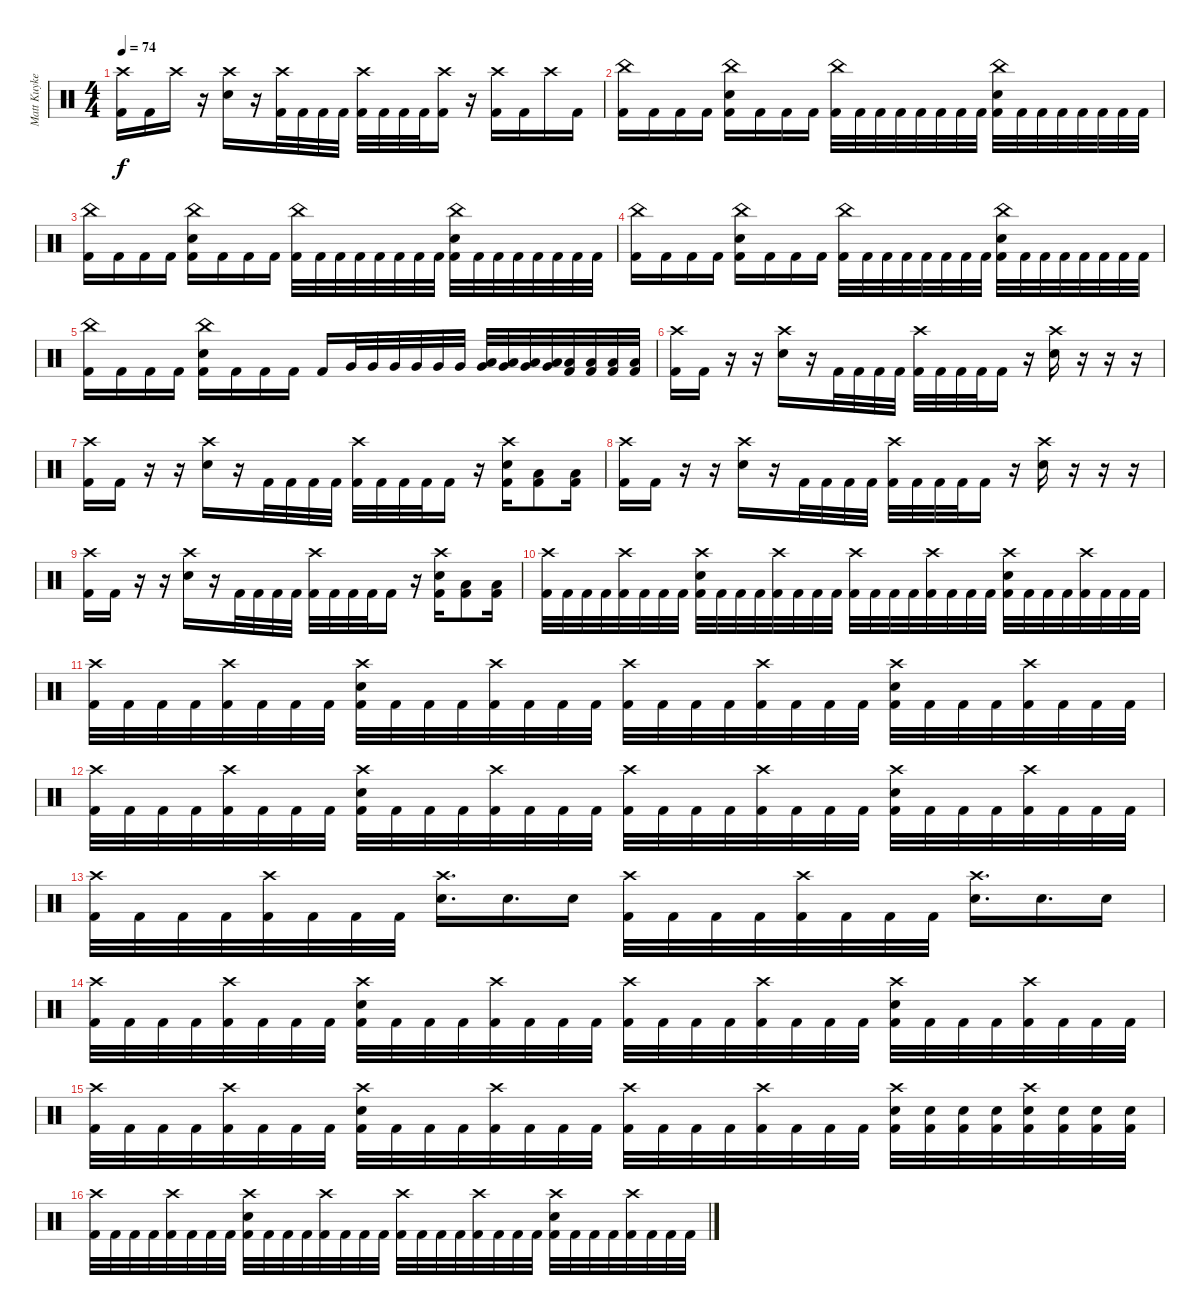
\track ("Matt Kuykendall (Drums)" "Matt Kuyke") {instrument percussion}
\staff {score}
\articulation defaults
\ts (4 4)
\tempo 74
\clef neutral
\ks c
("Crash high (hit)" "Kick (hit) 2").16{dy f} "Kick (hit) 2".16 "Crash high (hit)".16 r.16 ("Crash high (hit)" "Snare (hit) 2").16 r.16 ("Crash high (hit)" "Kick (hit) 2").32 "Kick (hit) 2".32 "Kick (hit) 2".32 "Kick (hit) 2".32 ("Crash high (hit)" "Kick (hit) 2").32 "Kick (hit) 2".32 "Kick (hit) 2".32 "Kick (hit) 2".32 ("Crash high (hit)" "Kick (hit) 2").16 r.16 ("Crash high (hit)" "Kick (hit) 2").16 "Kick (hit) 2".16 "Crash high (hit)".16 "Kick (hit) 2".16 |
("China (hit)" "Kick (hit) 2").16 "Kick (hit) 2".16 "Kick (hit) 2".16 "Kick (hit) 2".16 ("China (hit)" "Snare (hit) 2" "Kick (hit) 2").16 "Kick (hit) 2".16 "Kick (hit) 2".16 "Kick (hit) 2".16 ("China (hit)" "Kick (hit) 2").32 "Kick (hit) 2".32 "Kick (hit) 2".32 "Kick (hit) 2".32 "Kick (hit) 2".32 "Kick (hit) 2".32 "Kick (hit) 2".32 "Kick (hit) 2".32 ("China (hit)" "Snare (hit) 2" "Kick (hit) 2").32 "Kick (hit) 2".32 "Kick (hit) 2".32 "Kick (hit) 2".32 "Kick (hit) 2".32 "Kick (hit) 2".32 "Kick (hit) 2".32 "Kick (hit) 2".32 |
("China (hit)" "Kick (hit) 2").16 "Kick (hit) 2".16 "Kick (hit) 2".16 "Kick (hit) 2".16 ("China (hit)" "Snare (hit) 2" "Kick (hit) 2").16 "Kick (hit) 2".16 "Kick (hit) 2".16 "Kick (hit) 2".16 ("China (hit)" "Kick (hit) 2").32 "Kick (hit) 2".32 "Kick (hit) 2".32 "Kick (hit) 2".32 "Kick (hit) 2".32 "Kick (hit) 2".32 "Kick (hit) 2".32 "Kick (hit) 2".32 ("China (hit)" "Snare (hit) 2" "Kick (hit) 2").32 "Kick (hit) 2".32 "Kick (hit) 2".32 "Kick (hit) 2".32 "Kick (hit) 2".32 "Kick (hit) 2".32 "Kick (hit) 2".32 "Kick (hit) 2".32 |
("China (hit)" "Kick (hit) 2").16 "Kick (hit) 2".16 "Kick (hit) 2".16 "Kick (hit) 2".16 ("China (hit)" "Snare (hit) 2" "Kick (hit) 2").16 "Kick (hit) 2".16 "Kick (hit) 2".16 "Kick (hit) 2".16 ("China (hit)" "Kick (hit) 2").32 "Kick (hit) 2".32 "Kick (hit) 2".32 "Kick (hit) 2".32 "Kick (hit) 2".32 "Kick (hit) 2".32 "Kick (hit) 2".32 "Kick (hit) 2".32 ("China (hit)" "Snare (hit) 2" "Kick (hit) 2").32 "Kick (hit) 2".32 "Kick (hit) 2".32 "Kick (hit) 2".32 "Kick (hit) 2".32 "Kick (hit) 2".32 "Kick (hit) 2".32 "Kick (hit) 2".32 |
("China (hit)" "Kick (hit) 2").16 "Kick (hit) 2".16 "Kick (hit) 2".16 "Kick (hit) 2".16 ("China (hit)" "Snare (hit) 2" "Kick (hit) 2").16 "Kick (hit) 2".16 "Kick (hit) 2".16 "Kick (hit) 2".16 "Kick (hit) 2".16 "Very Low Tom (hit)".32 "Very Low Tom (hit)".32 "Very Low Tom (hit)".32 "Very Low Tom (hit)".32 "Very Low Tom (hit)".32 "Very Low Tom (hit)".32 ("Very Low Tom (hit)" "Low Floor Tom (hit)").32 ("Very Low Tom (hit)" "Low Floor Tom (hit)").32 ("Very Low Tom (hit)" "Low Floor Tom (hit)").32 ("Very Low Tom (hit)" "Low Floor Tom (hit)").32 ("Low Floor Tom (hit)" "Kick (hit) 2").32 ("Low Floor Tom (hit)" "Kick (hit) 2").32 ("Low Floor Tom (hit)" "Kick (hit) 2").32 ("Low Floor Tom (hit)" "Kick (hit) 2").32 |
("Crash high (hit)" "Kick (hit) 2").16 "Kick (hit) 2".16 r.16 r.16 ("Crash high (hit)" "Snare (hit) 2").16 r.16 "Kick (hit) 2".32 "Kick (hit) 2".32 "Kick (hit) 2".32 "Kick (hit) 2".32 ("Crash high (hit)" "Kick (hit) 2").32 "Kick (hit) 2".32 "Kick (hit) 2".32 "Kick (hit) 2".32 "Kick (hit) 2".16 r.16 ("Crash high (hit)" "Snare (hit) 2").16 r.16 r.16 r.16 |
("Crash high (hit)" "Kick (hit) 2").16 "Kick (hit) 2".16 r.16 r.16 ("Crash high (hit)" "Snare (hit) 2").16 r.16 "Kick (hit) 2".32 "Kick (hit) 2".32 "Kick (hit) 2".32 "Kick (hit) 2".32 ("Crash high (hit)" "Kick (hit) 2").32 "Kick (hit) 2".32 "Kick (hit) 2".32 "Kick (hit) 2".32 "Kick (hit) 2".16 r.16 ("Crash high (hit)" "Snare (hit) 2" "Kick (hit) 2").16 ("Low Floor Tom (hit)" "Kick (hit) 2").8 ("Low Floor Tom (hit)" "Kick (hit) 2").16 |
("Crash high (hit)" "Kick (hit) 2").16 "Kick (hit) 2".16 r.16 r.16 ("Crash high (hit)" "Snare (hit) 2").16 r.16 "Kick (hit) 2".32 "Kick (hit) 2".32 "Kick (hit) 2".32 "Kick (hit) 2".32 ("Crash high (hit)" "Kick (hit) 2").32 "Kick (hit) 2".32 "Kick (hit) 2".32 "Kick (hit) 2".32 "Kick (hit) 2".16 r.16 ("Crash high (hit)" "Snare (hit) 2").16 r.16 r.16 r.16 |
("Crash high (hit)" "Kick (hit) 2").16 "Kick (hit) 2".16 r.16 r.16 ("Crash high (hit)" "Snare (hit) 2").16 r.16 "Kick (hit) 2".32 "Kick (hit) 2".32 "Kick (hit) 2".32 "Kick (hit) 2".32 ("Crash high (hit)" "Kick (hit) 2").32 "Kick (hit) 2".32 "Kick (hit) 2".32 "Kick (hit) 2".32 "Kick (hit) 2".16 r.16 ("Crash high (hit)" "Snare (hit) 2" "Kick (hit) 2").16 ("Low Floor Tom (hit)" "Kick (hit) 2").8 ("Low Floor Tom (hit)" "Kick (hit) 2").16 |
("Crash high (hit)" "Kick (hit) 2").32 "Kick (hit) 2".32 "Kick (hit) 2".32 "Kick (hit) 2".32 ("Crash high (hit)" "Kick (hit) 2").32 "Kick (hit) 2".32 "Kick (hit) 2".32 "Kick (hit) 2".32 ("Crash high (hit)" "Snare (hit) 2" "Kick (hit) 2").32 "Kick (hit) 2".32 "Kick (hit) 2".32 "Kick (hit) 2".32 ("Crash high (hit)" "Kick (hit) 2").32 "Kick (hit) 2".32 "Kick (hit) 2".32 "Kick (hit) 2".32 ("Crash high (hit)" "Kick (hit) 2").32 "Kick (hit) 2".32 "Kick (hit) 2".32 "Kick (hit) 2".32 ("Crash high (hit)" "Kick (hit) 2").32 "Kick (hit) 2".32 "Kick (hit) 2".32 "Kick (hit) 2".32 ("Crash high (hit)" "Snare (hit) 2" "Kick (hit) 2").32 "Kick (hit) 2".32 "Kick (hit) 2".32 "Kick (hit) 2".32 ("Crash high (hit)" "Kick (hit) 2").32 "Kick (hit) 2".32 "Kick (hit) 2".32 "Kick (hit) 2".32 |
("Crash high (hit)" "Kick (hit) 2").32 "Kick (hit) 2".32 "Kick (hit) 2".32 "Kick (hit) 2".32 ("Crash high (hit)" "Kick (hit) 2").32 "Kick (hit) 2".32 "Kick (hit) 2".32 "Kick (hit) 2".32 ("Crash high (hit)" "Snare (hit) 2" "Kick (hit) 2").32 "Kick (hit) 2".32 "Kick (hit) 2".32 "Kick (hit) 2".32 ("Crash high (hit)" "Kick (hit) 2").32 "Kick (hit) 2".32 "Kick (hit) 2".32 "Kick (hit) 2".32 ("Crash high (hit)" "Kick (hit) 2").32 "Kick (hit) 2".32 "Kick (hit) 2".32 "Kick (hit) 2".32 ("Crash high (hit)" "Kick (hit) 2").32 "Kick (hit) 2".32 "Kick (hit) 2".32 "Kick (hit) 2".32 ("Crash high (hit)" "Snare (hit) 2" "Kick (hit) 2").32 "Kick (hit) 2".32 "Kick (hit) 2".32 "Kick (hit) 2".32 ("Crash high (hit)" "Kick (hit) 2").32 "Kick (hit) 2".32 "Kick (hit) 2".32 "Kick (hit) 2".32 |
("Crash high (hit)" "Kick (hit) 2").32 "Kick (hit) 2".32 "Kick (hit) 2".32 "Kick (hit) 2".32 ("Crash high (hit)" "Kick (hit) 2").32 "Kick (hit) 2".32 "Kick (hit) 2".32 "Kick (hit) 2".32 ("Crash high (hit)" "Snare (hit) 2" "Kick (hit) 2").32 "Kick (hit) 2".32 "Kick (hit) 2".32 "Kick (hit) 2".32 ("Crash high (hit)" "Kick (hit) 2").32 "Kick (hit) 2".32 "Kick (hit) 2".32 "Kick (hit) 2".32 ("Crash high (hit)" "Kick (hit) 2").32 "Kick (hit) 2".32 "Kick (hit) 2".32 "Kick (hit) 2".32 ("Crash high (hit)" "Kick (hit) 2").32 "Kick (hit) 2".32 "Kick (hit) 2".32 "Kick (hit) 2".32 ("Crash high (hit)" "Snare (hit) 2" "Kick (hit) 2").32 "Kick (hit) 2".32 "Kick (hit) 2".32 "Kick (hit) 2".32 ("Crash high (hit)" "Kick (hit) 2").32 "Kick (hit) 2".32 "Kick (hit) 2".32 "Kick (hit) 2".32 |
("Crash high (hit)" "Kick (hit) 2").32 "Kick (hit) 2".32 "Kick (hit) 2".32 "Kick (hit) 2".32 ("Crash high (hit)" "Kick (hit) 2").32 "Kick (hit) 2".32 "Kick (hit) 2".32 "Kick (hit) 2".32 ("Crash high (hit)" "Snare (hit) 2").16{d} "Snare (hit) 2".16{d} "Snare (hit) 2".16 ("Crash high (hit)" "Kick (hit) 2").32 "Kick (hit) 2".32 "Kick (hit) 2".32 "Kick (hit) 2".32 ("Crash high (hit)" "Kick (hit) 2").32 "Kick (hit) 2".32 "Kick (hit) 2".32 "Kick (hit) 2".32 ("Crash high (hit)" "Snare (hit) 2").16{d} "Snare (hit) 2".16{d} "Snare (hit) 2".16 |
("Crash high (hit)" "Kick (hit) 2").32 "Kick (hit) 2".32 "Kick (hit) 2".32 "Kick (hit) 2".32 ("Crash high (hit)" "Kick (hit) 2").32 "Kick (hit) 2".32 "Kick (hit) 2".32 "Kick (hit) 2".32 ("Crash high (hit)" "Snare (hit) 2" "Kick (hit) 2").32 "Kick (hit) 2".32 "Kick (hit) 2".32 "Kick (hit) 2".32 ("Crash high (hit)" "Kick (hit) 2").32 "Kick (hit) 2".32 "Kick (hit) 2".32 "Kick (hit) 2".32 ("Crash high (hit)" "Kick (hit) 2").32 "Kick (hit) 2".32 "Kick (hit) 2".32 "Kick (hit) 2".32 ("Crash high (hit)" "Kick (hit) 2").32 "Kick (hit) 2".32 "Kick (hit) 2".32 "Kick (hit) 2".32 ("Crash high (hit)" "Snare (hit) 2" "Kick (hit) 2").32 "Kick (hit) 2".32 "Kick (hit) 2".32 "Kick (hit) 2".32 ("Crash high (hit)" "Kick (hit) 2").32 "Kick (hit) 2".32 "Kick (hit) 2".32 "Kick (hit) 2".32 |
("Crash high (hit)" "Kick (hit) 2").32 "Kick (hit) 2".32 "Kick (hit) 2".32 "Kick (hit) 2".32 ("Crash high (hit)" "Kick (hit) 2").32 "Kick (hit) 2".32 "Kick (hit) 2".32 "Kick (hit) 2".32 ("Crash high (hit)" "Snare (hit) 2" "Kick (hit) 2").32 "Kick (hit) 2".32 "Kick (hit) 2".32 "Kick (hit) 2".32 ("Crash high (hit)" "Kick (hit) 2").32 "Kick (hit) 2".32 "Kick (hit) 2".32 "Kick (hit) 2".32 ("Crash high (hit)" "Kick (hit) 2").32 "Kick (hit) 2".32 "Kick (hit) 2".32 "Kick (hit) 2".32 ("Crash high (hit)" "Kick (hit) 2").32 "Kick (hit) 2".32 "Kick (hit) 2".32 "Kick (hit) 2".32 ("Crash high (hit)" "Snare (hit) 2" "Kick (hit) 2").32 ("Snare (hit) 2" "Kick (hit) 2").32 ("Snare (hit) 2" "Kick (hit) 2").32 ("Snare (hit) 2" "Kick (hit) 2").32 ("Crash high (hit)" "Snare (hit) 2" "Kick (hit) 2").32 ("Snare (hit) 2" "Kick (hit) 2").32 ("Snare (hit) 2" "Kick (hit) 2").32 ("Snare (hit) 2" "Kick (hit) 2").32 |
("Crash high (hit)" "Kick (hit) 2").32 "Kick (hit) 2".32 "Kick (hit) 2".32 "Kick (hit) 2".32 ("Crash high (hit)" "Kick (hit) 2").32 "Kick (hit) 2".32 "Kick (hit) 2".32 "Kick (hit) 2".32 ("Crash high (hit)" "Snare (hit) 2" "Kick (hit) 2").32 "Kick (hit) 2".32 "Kick (hit) 2".32 "Kick (hit) 2".32 ("Crash high (hit)" "Kick (hit) 2").32 "Kick (hit) 2".32 "Kick (hit) 2".32 "Kick (hit) 2".32 ("Crash high (hit)" "Kick (hit) 2").32 "Kick (hit) 2".32 "Kick (hit) 2".32 "Kick (hit) 2".32 ("Crash high (hit)" "Kick (hit) 2").32 "Kick (hit) 2".32 "Kick (hit) 2".32 "Kick (hit) 2".32 ("Crash high (hit)" "Snare (hit) 2" "Kick (hit) 2").32 "Kick (hit) 2".32 "Kick (hit) 2".32 "Kick (hit) 2".32 ("Crash high (hit)" "Kick (hit) 2").32 "Kick (hit) 2".32 "Kick (hit) 2".32 "Kick (hit) 2".32
